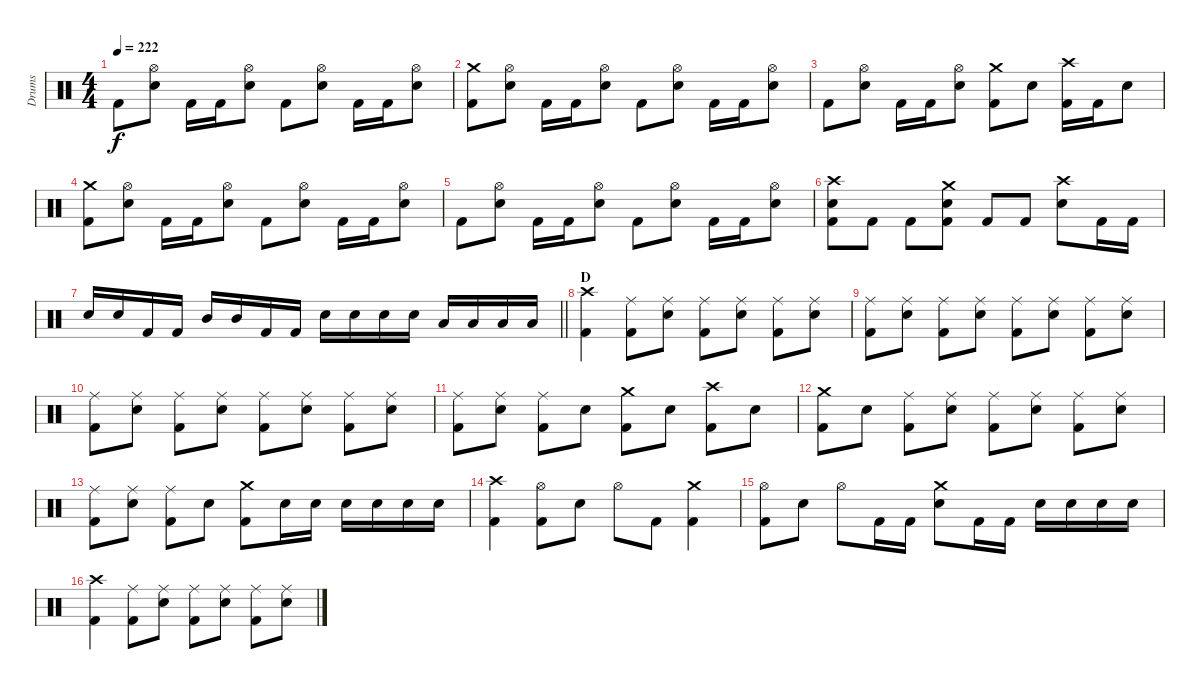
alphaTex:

\track ("Drums" "Drums") {instrument percussion}
\staff {score}
\articulation defaults
\ts (4 4)
\tempo 222
\clef neutral
\ks c "Kick (hit) 2".8{dy f}
("Hi-Hat (open)" "Electric Snare (hit)").8 "Kick (hit) 2".16 "Kick (hit) 2".16 ("Hi-Hat (open)" "Electric Snare (hit)").8 "Kick (hit) 2".8 ("Hi-Hat (open)" "Electric Snare (hit)").8 "Kick (hit) 2".16 "Kick (hit) 2".16 ("Hi-Hat (open)" "Electric Snare (hit)").8 |
("Crash medium (hit)" "Kick (hit) 2").8 ("Hi-Hat (open)" "Electric Snare (hit)").8 "Kick (hit) 2".16 "Kick (hit) 2".16 ("Hi-Hat (open)" "Electric Snare (hit)").8 "Kick (hit) 2".8 ("Hi-Hat (open)" "Electric Snare (hit)").8 "Kick (hit) 2".16 "Kick (hit) 2".16 ("Hi-Hat (open)" "Electric Snare (hit)").8 |
"Kick (hit) 2".8 ("Hi-Hat (open)" "Electric Snare (hit)").8 "Kick (hit) 2".16 "Kick (hit) 2".16 ("Hi-Hat (open)" "Electric Snare (hit)").8 ("Crash medium (hit)" "Kick (hit) 2").8 "Electric Snare (hit)".8 ("Crash high (hit)" "Kick (hit) 2").16 "Kick (hit) 2".16 "Electric Snare (hit)".8 |
("Crash medium (hit)" "Kick (hit) 2").8 ("Hi-Hat (open)" "Electric Snare (hit)").8 "Kick (hit) 2".16 "Kick (hit) 2".16 ("Hi-Hat (open)" "Electric Snare (hit)").8 "Kick (hit) 2".8 ("Hi-Hat (open)" "Electric Snare (hit)").8 "Kick (hit) 2".16 "Kick (hit) 2".16 ("Hi-Hat (open)" "Electric Snare (hit)").8 |
"Kick (hit) 2".8 ("Hi-Hat (open)" "Electric Snare (hit)").8 "Kick (hit) 2".16 "Kick (hit) 2".16 ("Hi-Hat (open)" "Electric Snare (hit)").8 "Kick (hit) 2".8 ("Hi-Hat (open)" "Electric Snare (hit)").8 "Kick (hit) 2".16 "Kick (hit) 2".16 ("Hi-Hat (open)" "Electric Snare (hit)").8 |
("Crash high (hit)" "Electric Snare (hit)" "Kick (hit) 2").8 "Kick (hit) 2".8 "Kick (hit) 2".8 ("Crash medium (hit)" "Electric Snare (hit)" "Kick (hit) 2").8 "Kick (hit) 2".8 "Kick (hit) 2".8 ("Crash high (hit)" "Electric Snare (hit)").8 "Kick (hit) 2".16 "Kick (hit) 2".16 |
\barLineRight lightlight "Electric Snare (hit)".16 "Electric Snare (hit)".16 "Kick (hit) 2".16 "Kick (hit) 2".16 "Mid Tom (hit)".16 "Mid Tom (hit)".16 "Kick (hit) 2".16 "Kick (hit) 2".16 "Electric Snare (hit)".16 "Electric Snare (hit)".16 "Electric Snare (hit)".16 "Electric Snare (hit)".16 "Low Tom (hit)".16 "Low Tom (hit)".16 "Low Tom (hit)".16 "Low Tom (hit)".16
|
\section ("" "D")
("Crash high (hit)" "Kick (hit) 2").4 ("Ride (middle)" "Kick (hit) 2").8 ("Ride (middle)" "Electric Snare (hit)").8 ("Ride (middle)" "Kick (hit) 2").8 ("Ride (middle)" "Electric Snare (hit)").8 ("Ride (middle)" "Kick (hit) 2").8 ("Ride (middle)" "Electric Snare (hit)").8 |
("Ride (middle)" "Kick (hit) 2").8 ("Ride (middle)" "Electric Snare (hit)").8 ("Ride (middle)" "Kick (hit) 2").8 ("Ride (middle)" "Electric Snare (hit)").8 ("Ride (middle)" "Kick (hit) 2").8 ("Ride (middle)" "Electric Snare (hit)").8 ("Ride (middle)" "Kick (hit) 2").8 ("Ride (middle)" "Electric Snare (hit)").8 |
("Ride (middle)" "Kick (hit) 2").8 ("Ride (middle)" "Electric Snare (hit)").8 ("Ride (middle)" "Kick (hit) 2").8 ("Ride (middle)" "Electric Snare (hit)").8 ("Ride (middle)" "Kick (hit) 2").8 ("Ride (middle)" "Electric Snare (hit)").8 ("Ride (middle)" "Kick (hit) 2").8 ("Ride (middle)" "Electric Snare (hit)").8 |
("Ride (middle)" "Kick (hit) 2").8 ("Ride (middle)" "Electric Snare (hit)").8 ("Ride (middle)" "Kick (hit) 2").8 "Electric Snare (hit)".8 ("Crash medium (hit)" "Kick (hit) 2").8 "Electric Snare (hit)".8 ("Crash high (hit)" "Kick (hit) 2").8 "Electric Snare (hit)".8 |
("Crash medium (hit)" "Kick (hit) 2").8 "Electric Snare (hit)".8 ("Ride (middle)" "Kick (hit) 2").8 ("Ride (middle)" "Electric Snare (hit)").8 ("Ride (middle)" "Kick (hit) 2").8 ("Ride (middle)" "Electric Snare (hit)").8 ("Ride (middle)" "Kick (hit) 2").8 ("Ride (middle)" "Electric Snare (hit)").8 |
("Ride (middle)" "Kick (hit) 2").8 ("Ride (middle)" "Electric Snare (hit)").8 ("Ride (middle)" "Kick (hit) 2").8 "Electric Snare (hit)".8 ("Crash medium (hit)" "Kick (hit) 2").8 "Electric Snare (hit)".16 "Electric Snare (hit)".16 "Electric Snare (hit)".16 "Electric Snare (hit)".16 "Electric Snare (hit)".16 "Electric Snare (hit)".16 |
("Crash high (hit)" "Kick (hit) 2").4 ("Hi-Hat (open)" "Kick (hit) 2").8 "Electric Snare (hit)".8 "Hi-Hat (open)".8 "Kick (hit) 2".8 ("Crash medium (hit)" "Kick (hit) 2").4 |
("Hi-Hat (open)" "Kick (hit) 2").8 "Electric Snare (hit)".8 "Hi-Hat (open)".8 "Kick (hit) 2".16 "Kick (hit) 2".16 ("Crash medium (hit)" "Electric Snare (hit)").8 "Kick (hit) 2".16 "Kick (hit) 2".16 "Electric Snare (hit)".16 "Electric Snare (hit)".16 "Electric Snare (hit)".16 "Electric Snare (hit)".16 |
("Crash high (hit)" "Kick (hit) 2").4 ("Ride (middle)" "Kick (hit) 2").8 ("Ride (middle)" "Electric Snare (hit)").8 ("Ride (middle)" "Kick (hit) 2").8 ("Ride (middle)" "Electric Snare (hit)").8 ("Ride (middle)" "Kick (hit) 2").8 ("Ride (middle)" "Electric Snare (hit)").8
